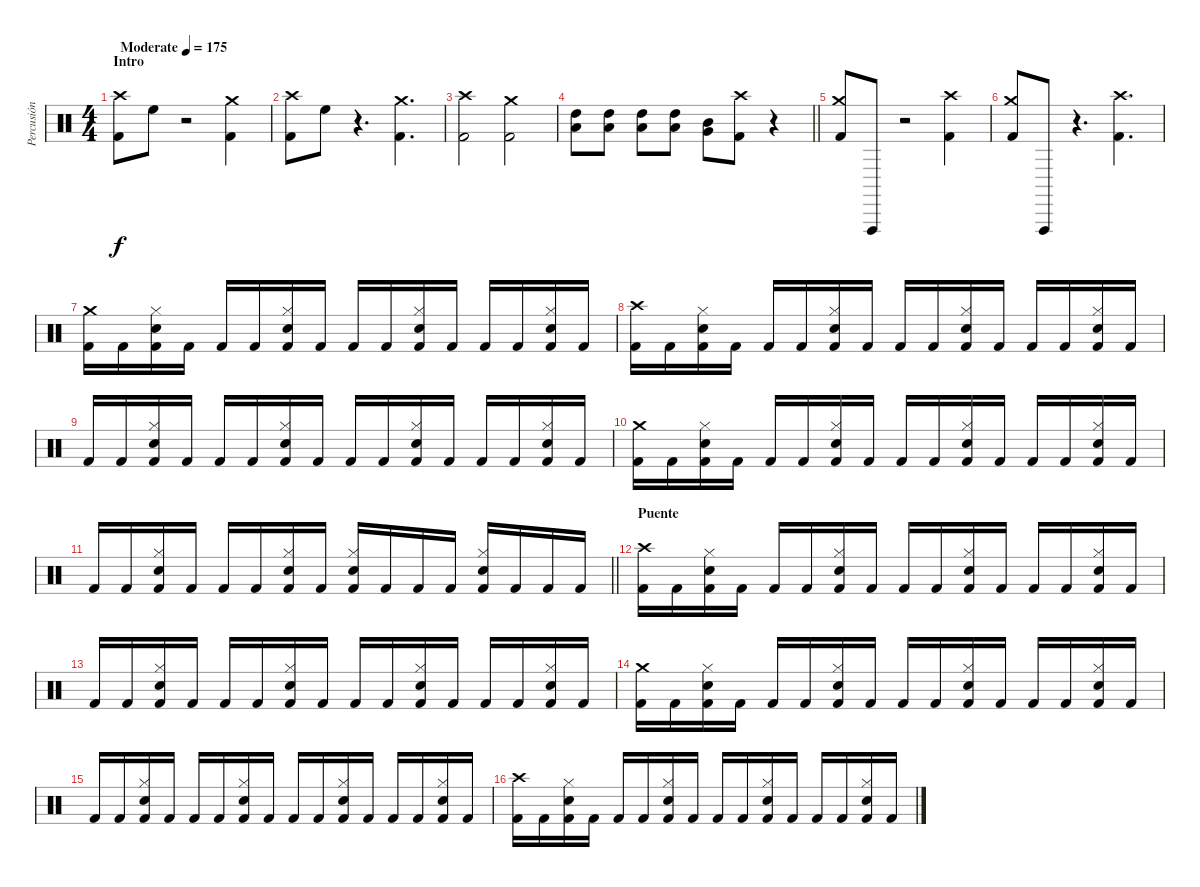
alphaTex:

\track ("Percusión" "Percusión") {instrument percussion}
\staff {score}
\articulation defaults
\ts (4 4)
\section ("" "Intro")
\tempo (175 "Moderate")
\clef neutral
\ks c
("Crash high (hit)" "Kick (hit) 2").8{dy f} "High Floor Tom (hit)".8 r.2 ("Crash medium (hit)" "Kick (hit) 2").4 |
("Crash high (hit)" "Kick (hit) 2").8 "High Floor Tom (hit)".8 r.4{d} ("Crash medium (hit)" "Kick (hit) 2").4{d} |
("Crash high (hit)" "Kick (hit) 2").2 ("Crash medium (hit)" "Kick (hit) 2").2 |
\barLineRight lightlight
("High Tom (hit)" "Low Tom (hit)").8 ("High Tom (hit)" "Low Tom (hit)").8 ("High Tom (hit)" "Low Tom (hit)").8 ("High Tom (hit)" "Low Tom (hit)").8 ("Mid Tom (hit)" "Very Low Tom (hit)").8 ("Crash high (hit)" "Kick (hit) 2").8 r.4 |
\section ("" "")
("Crash medium (hit)" "Kick (hit) 2").8 "Vibraslap (hit)".8 r.2 ("Crash high (hit)" "Kick (hit) 2").4 |
("Crash medium (hit)" "Kick (hit) 2").8 "Vibraslap (hit)".8 r.4{d} ("Crash high (hit)" "Kick (hit) 2").4{d} |
("Crash medium (hit)" "Kick (hit) 2").16 "Kick (hit) 2".16 ("Hi-Hat (closed)" "Snare (hit) 2" "Kick (hit) 2").16 "Kick (hit) 2".16 "Kick (hit) 2".16 "Kick (hit) 2".16 ("Hi-Hat (closed)" "Snare (hit) 2" "Kick (hit) 2").16 "Kick (hit) 2".16 "Kick (hit) 2".16 "Kick (hit) 2".16 ("Hi-Hat (closed)" "Snare (hit) 2" "Kick (hit) 2").16 "Kick (hit) 2".16 "Kick (hit) 2".16 "Kick (hit) 2".16 ("Hi-Hat (closed)" "Snare (hit) 2" "Kick (hit) 2").16 "Kick (hit) 2".16 |
("Crash high (hit)" "Kick (hit) 2").16 "Kick (hit) 2".16 ("Hi-Hat (closed)" "Snare (hit) 2" "Kick (hit) 2").16 "Kick (hit) 2".16 "Kick (hit) 2".16 "Kick (hit) 2".16 ("Hi-Hat (closed)" "Snare (hit) 2" "Kick (hit) 2").16 "Kick (hit) 2".16 "Kick (hit) 2".16 "Kick (hit) 2".16 ("Hi-Hat (closed)" "Snare (hit) 2" "Kick (hit) 2").16 "Kick (hit) 2".16 "Kick (hit) 2".16 "Kick (hit) 2".16 ("Hi-Hat (closed)" "Snare (hit) 2" "Kick (hit) 2").16 "Kick (hit) 2".16 |
"Kick (hit) 2".16 "Kick (hit) 2".16 ("Hi-Hat (closed)" "Snare (hit) 2" "Kick (hit) 2").16 "Kick (hit) 2".16 "Kick (hit) 2".16 "Kick (hit) 2".16 ("Hi-Hat (closed)" "Snare (hit) 2" "Kick (hit) 2").16 "Kick (hit) 2".16 "Kick (hit) 2".16 "Kick (hit) 2".16 ("Hi-Hat (closed)" "Snare (hit) 2" "Kick (hit) 2").16 "Kick (hit) 2".16 "Kick (hit) 2".16 "Kick (hit) 2".16 ("Hi-Hat (closed)" "Snare (hit) 2" "Kick (hit) 2").16 "Kick (hit) 2".16 |
("Crash medium (hit)" "Kick (hit) 2").16 "Kick (hit) 2".16 ("Hi-Hat (closed)" "Snare (hit) 2" "Kick (hit) 2").16 "Kick (hit) 2".16 "Kick (hit) 2".16 "Kick (hit) 2".16 ("Hi-Hat (closed)" "Snare (hit) 2" "Kick (hit) 2").16 "Kick (hit) 2".16 "Kick (hit) 2".16 "Kick (hit) 2".16 ("Hi-Hat (closed)" "Snare (hit) 2" "Kick (hit) 2").16 "Kick (hit) 2".16 "Kick (hit) 2".16 "Kick (hit) 2".16 ("Hi-Hat (closed)" "Snare (hit) 2" "Kick (hit) 2").16 "Kick (hit) 2".16 |
\barLineRight lightlight "Kick (hit) 2".16 "Kick (hit) 2".16
("Hi-Hat (closed)" "Snare (hit) 2" "Kick (hit) 2").16 "Kick (hit) 2".16 "Kick (hit) 2".16 "Kick (hit) 2".16 ("Hi-Hat (closed)" "Snare (hit) 2" "Kick (hit) 2").16 "Kick (hit) 2".16 ("Hi-Hat (closed)" "Snare (hit) 2" "Kick (hit) 2").16 "Kick (hit) 2".16 "Kick (hit) 2".16 "Kick (hit) 2".16 ("Hi-Hat (closed)" "Snare (hit) 2" "Kick (hit) 2").16 "Kick (hit) 2".16 "Kick (hit) 2".16 "Kick (hit) 2".16 |
\section ("" "Puente")
("Crash high (hit)" "Kick (hit) 2").16 "Kick (hit) 2".16 ("Hi-Hat (closed)" "Snare (hit) 2" "Kick (hit) 2").16 "Kick (hit) 2".16 "Kick (hit) 2".16 "Kick (hit) 2".16 ("Hi-Hat (closed)" "Snare (hit) 2" "Kick (hit) 2").16 "Kick (hit) 2".16 "Kick (hit) 2".16 "Kick (hit) 2".16 ("Hi-Hat (closed)" "Snare (hit) 2" "Kick (hit) 2").16 "Kick (hit) 2".16 "Kick (hit) 2".16 "Kick (hit) 2".16 ("Hi-Hat (closed)" "Snare (hit) 2" "Kick (hit) 2").16 "Kick (hit) 2".16 |
"Kick (hit) 2".16 "Kick (hit) 2".16 ("Hi-Hat (closed)" "Snare (hit) 2" "Kick (hit) 2").16 "Kick (hit) 2".16 "Kick (hit) 2".16 "Kick (hit) 2".16 ("Hi-Hat (closed)" "Snare (hit) 2" "Kick (hit) 2").16 "Kick (hit) 2".16 "Kick (hit) 2".16 "Kick (hit) 2".16 ("Hi-Hat (closed)" "Snare (hit) 2" "Kick (hit) 2").16 "Kick (hit) 2".16 "Kick (hit) 2".16 "Kick (hit) 2".16 ("Hi-Hat (closed)" "Snare (hit) 2" "Kick (hit) 2").16 "Kick (hit) 2".16 |
("Crash medium (hit)" "Kick (hit) 2").16 "Kick (hit) 2".16 ("Hi-Hat (closed)" "Snare (hit) 2" "Kick (hit) 2").16 "Kick (hit) 2".16 "Kick (hit) 2".16 "Kick (hit) 2".16 ("Hi-Hat (closed)" "Snare (hit) 2" "Kick (hit) 2").16 "Kick (hit) 2".16 "Kick (hit) 2".16 "Kick (hit) 2".16 ("Hi-Hat (closed)" "Snare (hit) 2" "Kick (hit) 2").16 "Kick (hit) 2".16 "Kick (hit) 2".16 "Kick (hit) 2".16 ("Hi-Hat (closed)" "Snare (hit) 2" "Kick (hit) 2").16 "Kick (hit) 2".16 |
"Kick (hit) 2".16 "Kick (hit) 2".16 ("Hi-Hat (closed)" "Snare (hit) 2" "Kick (hit) 2").16 "Kick (hit) 2".16 "Kick (hit) 2".16 "Kick (hit) 2".16 ("Hi-Hat (closed)" "Snare (hit) 2" "Kick (hit) 2").16 "Kick (hit) 2".16 "Kick (hit) 2".16 "Kick (hit) 2".16 ("Hi-Hat (closed)" "Snare (hit) 2" "Kick (hit) 2").16 "Kick (hit) 2".16 "Kick (hit) 2".16 "Kick (hit) 2".16 ("Hi-Hat (closed)" "Snare (hit) 2" "Kick (hit) 2").16 "Kick (hit) 2".16 |
("Crash high (hit)" "Kick (hit) 2").16 "Kick (hit) 2".16 ("Hi-Hat (closed)" "Snare (hit) 2" "Kick (hit) 2").16 "Kick (hit) 2".16 "Kick (hit) 2".16 "Kick (hit) 2".16 ("Hi-Hat (closed)" "Snare (hit) 2" "Kick (hit) 2").16 "Kick (hit) 2".16 "Kick (hit) 2".16 "Kick (hit) 2".16 ("Hi-Hat (closed)" "Snare (hit) 2" "Kick (hit) 2").16 "Kick (hit) 2".16 "Kick (hit) 2".16 "Kick (hit) 2".16 ("Hi-Hat (closed)" "Snare (hit) 2" "Kick (hit) 2").16 "Kick (hit) 2".16
